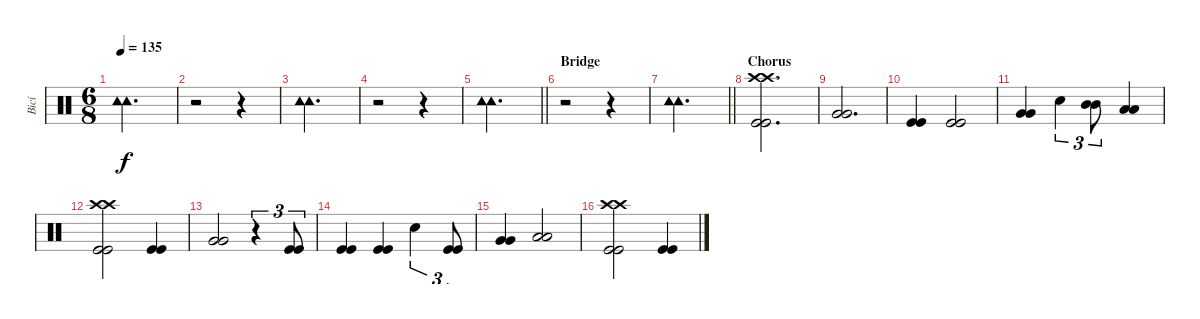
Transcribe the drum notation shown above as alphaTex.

\track ("Bicí" "Bicí") {instrument percussion}
\staff {score}
\articulation defaults
\ts (6 8)
\tempo 135
\clef neutral
\ks c
("Tambourine (hit)" "Tambourine (hit)").2{d dy f} |
r.2 r.4 |
("Tambourine (hit)" "Tambourine (hit)").2{d} |
r.2 r.4 |
\barLineRight lightlight
("Tambourine (hit)" "Tambourine (hit)").2{d} |
\section ("" "Bridge")
r.2 r.4 |
\barLineRight lightlight
("Tambourine (hit)" "Tambourine (hit)").2{d} |
\section ("" "Chorus")
("Crash high (hit)" "Crash high (hit)" "Kick (hit)" "Kick (hit)").2{d} |
("Very Low Tom (hit)" "Very Low Tom (hit)").2{d} |
("Kick (hit)" "Kick (hit)").4 ("Kick (hit)" "Kick (hit)").2 |
("Very Low Tom (hit)" "Very Low Tom (hit)").4 "Snare (hit)".4{tu (3 2)} ("Mid Tom (hit)" "Mid Tom (hit)").8{tu (3 2)} ("Low Floor Tom (hit)" "Low Floor Tom (hit)").4 |
("Crash high (hit)" "Crash high (hit)" "Kick (hit)" "Kick (hit)").2 ("Kick (hit)" "Kick (hit)").4 |
("Very Low Tom (hit)" "Very Low Tom (hit)").2 r.4{tu (3 2)} ("Kick (hit)" "Kick (hit)").8{tu (3 2)} |
("Kick (hit)" "Kick (hit)").4 ("Kick (hit)" "Kick (hit)").4 "Snare (hit)".4{tu (3 2)} ("Kick (hit)" "Kick (hit)").8{tu (3 2)} |
("Very Low Tom (hit)" "Very Low Tom (hit)").4 ("Low Tom (hit)" "Low Tom (hit)").2 |
("Crash high (hit)" "Crash high (hit)" "Kick (hit)" "Kick (hit)").2 ("Kick (hit)" "Kick (hit)").4
